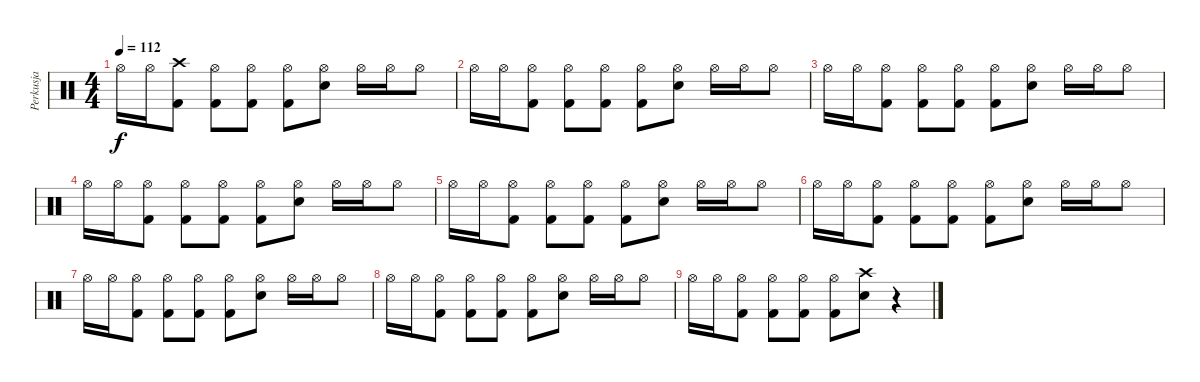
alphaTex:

\track ("Perkusja" "Perkusja") {instrument percussion}
\staff {score}
\articulation defaults
\ts (4 4)
\tempo 112
\clef neutral
\ks c "Hi-Hat (open)".16{dy f} "Hi-Hat (open)".16
("Crash high (hit)" "Kick (hit) 2").8 ("Hi-Hat (open)" "Kick (hit) 2").8 ("Kick (hit) 2" "Hi-Hat (open)").8 ("Hi-Hat (open)" "Kick (hit) 2").8 ("Snare (hit) 2" "Hi-Hat (open)").8 "Hi-Hat (open)".16 "Hi-Hat (open)".16 "Hi-Hat (open)".8 |
"Hi-Hat (open)".16 "Hi-Hat (open)".16 ("Hi-Hat (open)" "Kick (hit) 2").8 ("Hi-Hat (open)" "Kick (hit) 2").8 ("Kick (hit) 2" "Hi-Hat (open)").8 ("Hi-Hat (open)" "Kick (hit) 2").8 ("Snare (hit) 2" "Hi-Hat (open)").8 "Hi-Hat (open)".16 "Hi-Hat (open)".16 "Hi-Hat (open)".8 |
"Hi-Hat (open)".16 "Hi-Hat (open)".16 ("Hi-Hat (open)" "Kick (hit) 2").8 ("Hi-Hat (open)" "Kick (hit) 2").8 ("Kick (hit) 2" "Hi-Hat (open)").8 ("Hi-Hat (open)" "Kick (hit) 2").8 ("Snare (hit) 2" "Hi-Hat (open)").8 "Hi-Hat (open)".16 "Hi-Hat (open)".16 "Hi-Hat (open)".8 |
"Hi-Hat (open)".16 "Hi-Hat (open)".16 ("Hi-Hat (open)" "Kick (hit) 2").8 ("Hi-Hat (open)" "Kick (hit) 2").8 ("Kick (hit) 2" "Hi-Hat (open)").8 ("Hi-Hat (open)" "Kick (hit) 2").8 ("Snare (hit) 2" "Hi-Hat (open)").8 "Hi-Hat (open)".16 "Hi-Hat (open)".16 "Hi-Hat (open)".8 |
"Hi-Hat (open)".16 "Hi-Hat (open)".16 ("Hi-Hat (open)" "Kick (hit) 2").8 ("Hi-Hat (open)" "Kick (hit) 2").8 ("Kick (hit) 2" "Hi-Hat (open)").8 ("Hi-Hat (open)" "Kick (hit) 2").8 ("Snare (hit) 2" "Hi-Hat (open)").8 "Hi-Hat (open)".16 "Hi-Hat (open)".16 "Hi-Hat (open)".8 |
"Hi-Hat (open)".16 "Hi-Hat (open)".16 ("Hi-Hat (open)" "Kick (hit) 2").8 ("Hi-Hat (open)" "Kick (hit) 2").8 ("Kick (hit) 2" "Hi-Hat (open)").8 ("Hi-Hat (open)" "Kick (hit) 2").8 ("Snare (hit) 2" "Hi-Hat (open)").8 "Hi-Hat (open)".16 "Hi-Hat (open)".16 "Hi-Hat (open)".8 |
"Hi-Hat (open)".16 "Hi-Hat (open)".16 ("Hi-Hat (open)" "Kick (hit) 2").8 ("Hi-Hat (open)" "Kick (hit) 2").8 ("Kick (hit) 2" "Hi-Hat (open)").8 ("Hi-Hat (open)" "Kick (hit) 2").8 ("Snare (hit) 2" "Hi-Hat (open)").8 "Hi-Hat (open)".16 "Hi-Hat (open)".16 "Hi-Hat (open)".8 |
"Hi-Hat (open)".16 "Hi-Hat (open)".16 ("Hi-Hat (open)" "Kick (hit) 2").8 ("Hi-Hat (open)" "Kick (hit) 2").8 ("Kick (hit) 2" "Hi-Hat (open)").8 ("Hi-Hat (open)" "Kick (hit) 2").8 ("Snare (hit) 2" "Hi-Hat (open)").8 "Hi-Hat (open)".16 "Hi-Hat (open)".16 "Hi-Hat (open)".8 |
"Hi-Hat (open)".16 "Hi-Hat (open)".16 ("Hi-Hat (open)" "Kick (hit) 2").8 ("Hi-Hat (open)" "Kick (hit) 2").8 ("Kick (hit) 2" "Hi-Hat (open)").8 ("Hi-Hat (open)" "Kick (hit) 2").8 ("Snare (hit) 2" "Crash high (hit)").8 r.4
